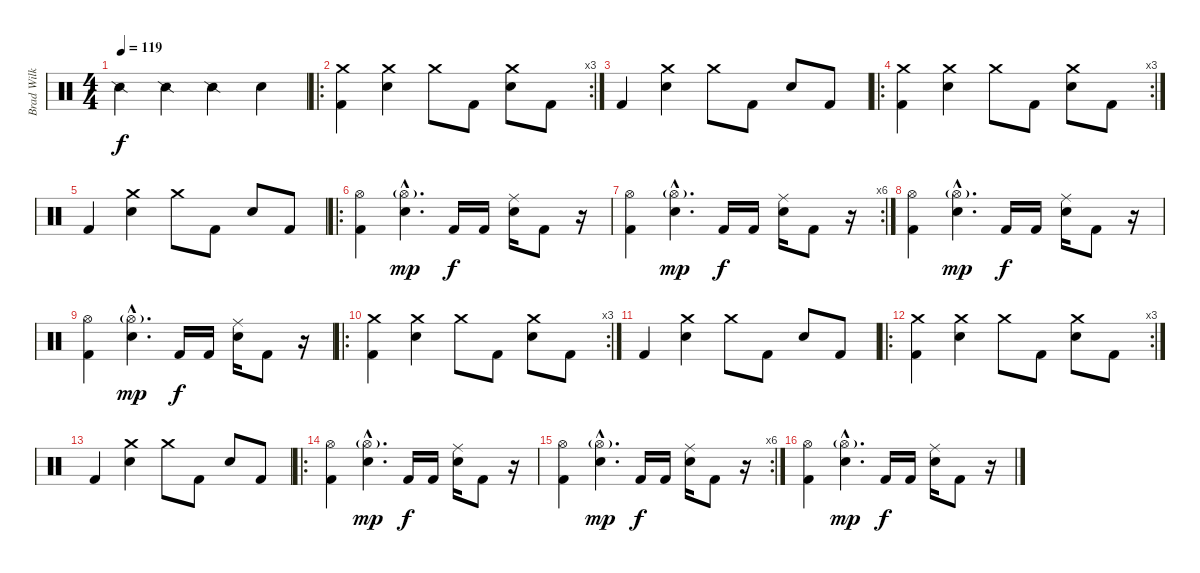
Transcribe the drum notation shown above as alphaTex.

\track ("Brad Wilk" "Brad Wilk") {instrument percussion}
\staff {score}
\articulation defaults
\ts (4 4)
\tempo 119
\clef neutral
\ks c "Snare (side stick) 2".4{dy f} "Snare (side stick) 2".4 "Snare (side stick) 2".4 "Electric Snare (hit)".4
|
\ro
\rc 3
("Crash medium (hit)" "Kick (hit) 2").4 ("Crash medium (hit)" "Electric Snare (hit)").4 "Crash medium (hit)".8 "Kick (hit) 2".8 ("Crash medium (hit)" "Electric Snare (hit)").8 "Kick (hit) 2".8 |
"Kick (hit) 2".4 ("Crash medium (hit)" "Electric Snare (hit)").4 "Crash medium (hit)".8 "Kick (hit) 2".8 "Electric Snare (hit)".8 "Kick (hit) 2".8 |
\ro
\rc 3
("Crash medium (hit)" "Kick (hit) 2").4 ("Crash medium (hit)" "Electric Snare (hit)").4 "Crash medium (hit)".8 "Kick (hit) 2".8 ("Crash medium (hit)" "Electric Snare (hit)").8 "Kick (hit) 2".8 |
"Kick (hit) 2".4 ("Crash medium (hit)" "Electric Snare (hit)").4 "Crash medium (hit)".8 "Kick (hit) 2".8 "Electric Snare (hit)".8 "Kick (hit) 2".8 |
\ro
("Hi-Hat (open)" "Kick (hit) 2").4 ("Hi-Hat (open)"{g hac} "Electric Snare (hit)"{hac}).4{d dy mp} "Kick (hit) 2".16{dy f} "Kick (hit) 2".16 ("Ride (middle)" "Electric Snare (hit)").16 "Kick (hit) 2".8 r.16 |
\rc 6
("Hi-Hat (open)" "Kick (hit) 2").4 ("Hi-Hat (open)"{g hac} "Electric Snare (hit)"{hac}).4{d dy mp} "Kick (hit) 2".16{dy f} "Kick (hit) 2".16 ("Ride (middle)" "Electric Snare (hit)").16 "Kick (hit) 2".8 r.16 |
("Hi-Hat (open)" "Kick (hit) 2").4 ("Hi-Hat (open)"{g hac} "Electric Snare (hit)"{hac}).4{d dy mp} "Kick (hit) 2".16{dy f} "Kick (hit) 2".16 ("Ride (middle)" "Electric Snare (hit)").16 "Kick (hit) 2".8 r.16 |
("Hi-Hat (open)" "Kick (hit) 2").4 ("Hi-Hat (open)"{g hac} "Electric Snare (hit)"{hac}).4{d dy mp} "Kick (hit) 2".16{dy f} "Kick (hit) 2".16 ("Ride (middle)" "Electric Snare (hit)").16 "Kick (hit) 2".8 r.16 |
\ro
\rc 3
("Crash medium (hit)" "Kick (hit) 2").4 ("Crash medium (hit)" "Electric Snare (hit)").4 "Crash medium (hit)".8 "Kick (hit) 2".8 ("Crash medium (hit)" "Electric Snare (hit)").8 "Kick (hit) 2".8 |
"Kick (hit) 2".4 ("Crash medium (hit)" "Electric Snare (hit)").4 "Crash medium (hit)".8 "Kick (hit) 2".8 "Electric Snare (hit)".8 "Kick (hit) 2".8 |
\ro
\rc 3
("Crash medium (hit)" "Kick (hit) 2").4 ("Crash medium (hit)" "Electric Snare (hit)").4 "Crash medium (hit)".8 "Kick (hit) 2".8 ("Crash medium (hit)" "Electric Snare (hit)").8 "Kick (hit) 2".8 |
"Kick (hit) 2".4 ("Crash medium (hit)" "Electric Snare (hit)").4 "Crash medium (hit)".8 "Kick (hit) 2".8 "Electric Snare (hit)".8 "Kick (hit) 2".8 |
\ro
("Hi-Hat (open)" "Kick (hit) 2").4 ("Hi-Hat (open)"{g hac} "Electric Snare (hit)"{hac}).4{d dy mp} "Kick (hit) 2".16{dy f} "Kick (hit) 2".16 ("Ride (middle)" "Electric Snare (hit)").16 "Kick (hit) 2".8 r.16 |
\rc 6
("Hi-Hat (open)" "Kick (hit) 2").4 ("Hi-Hat (open)"{g hac} "Electric Snare (hit)"{hac}).4{d dy mp} "Kick (hit) 2".16{dy f} "Kick (hit) 2".16 ("Ride (middle)" "Electric Snare (hit)").16 "Kick (hit) 2".8 r.16 |
("Hi-Hat (open)" "Kick (hit) 2").4 ("Hi-Hat (open)"{g hac} "Electric Snare (hit)"{hac}).4{d dy mp} "Kick (hit) 2".16{dy f} "Kick (hit) 2".16 ("Ride (middle)" "Electric Snare (hit)").16 "Kick (hit) 2".8 r.16
